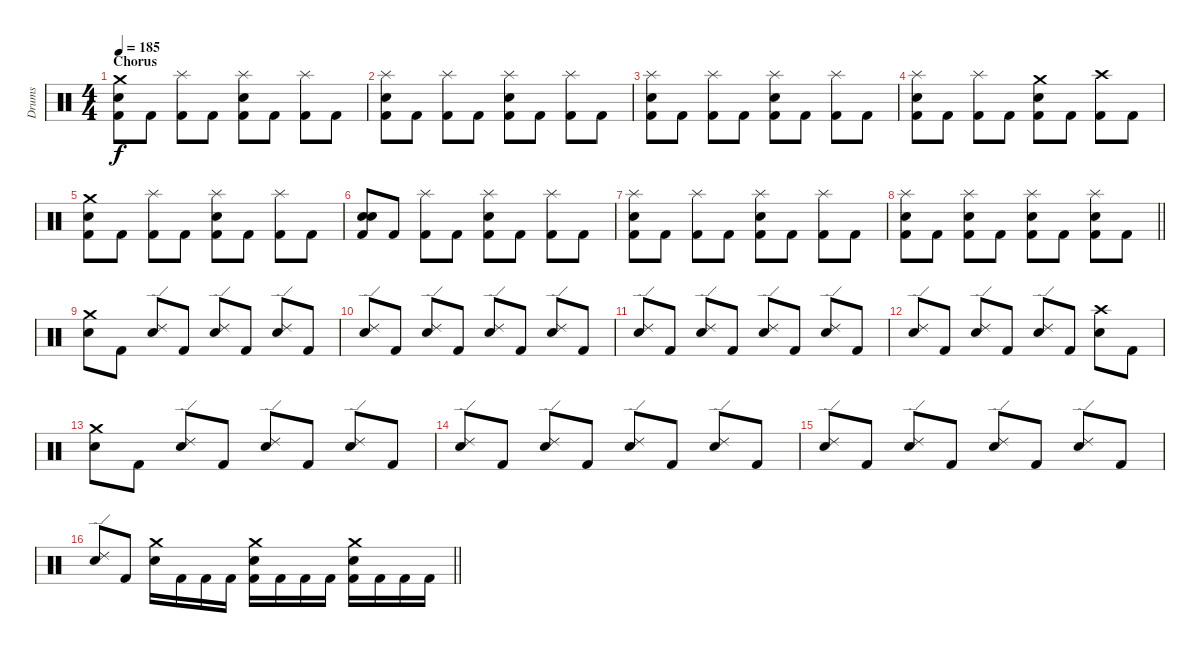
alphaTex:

\track ("Drums" "Drums") {instrument percussion}
\staff {score}
\articulation defaults
\ts (4 4)
\section ("" "Chorus")
\tempo 185
\clef neutral
\ks c
("Kick (hit) 2" "Snare (hit) 2" "Crash medium (hit)").8{dy f} "Kick (hit) 2".8 ("Kick (hit) 2" "Splash (hit)").8 "Kick (hit) 2".8 ("Kick (hit) 2" "Snare (hit) 2" "Splash (hit)").8 "Kick (hit) 2".8 ("Kick (hit) 2" "Splash (hit)").8 "Kick (hit) 2".8 |
("Kick (hit) 2" "Snare (hit) 2" "Splash (hit)").8 "Kick (hit) 2".8 ("Kick (hit) 2" "Splash (hit)").8 "Kick (hit) 2".8 ("Kick (hit) 2" "Snare (hit) 2" "Splash (hit)").8 "Kick (hit) 2".8 ("Kick (hit) 2" "Splash (hit)").8 "Kick (hit) 2".8 |
("Kick (hit) 2" "Snare (hit) 2" "Splash (hit)").8 "Kick (hit) 2".8 ("Kick (hit) 2" "Splash (hit)").8 "Kick (hit) 2".8 ("Kick (hit) 2" "Snare (hit) 2" "Splash (hit)").8 "Kick (hit) 2".8 ("Kick (hit) 2" "Splash (hit)").8 "Kick (hit) 2".8 |
("Kick (hit) 2" "Snare (hit) 2" "Splash (hit)").8 "Kick (hit) 2".8 ("Kick (hit) 2" "Splash (hit)").8 "Kick (hit) 2".8 ("Kick (hit) 2" "Snare (hit) 2" "Crash medium (hit)").8 "Kick (hit) 2".8 ("Kick (hit) 2" "Crash high (hit)").8 "Kick (hit) 2".8 |
("Kick (hit) 2" "Snare (hit) 2" "Crash medium (hit)").8 "Kick (hit) 2".8 ("Kick (hit) 2" "Splash (hit)").8 "Kick (hit) 2".8 ("Kick (hit) 2" "Snare (hit) 2" "Splash (hit)").8 "Kick (hit) 2".8 ("Kick (hit) 2" "Splash (hit)").8 "Kick (hit) 2".8 |
("Kick (hit) 2" "Snare (hit) 2" "Snare (hit) 2").8 "Kick (hit) 2".8 ("Kick (hit) 2" "Splash (hit)").8 "Kick (hit) 2".8 ("Kick (hit) 2" "Snare (hit) 2" "Splash (hit)").8 "Kick (hit) 2".8 ("Kick (hit) 2" "Splash (hit)").8 "Kick (hit) 2".8 |
("Kick (hit) 2" "Snare (hit) 2" "Splash (hit)").8 "Kick (hit) 2".8 ("Kick (hit) 2" "Splash (hit)").8 "Kick (hit) 2".8 ("Kick (hit) 2" "Snare (hit) 2" "Splash (hit)").8 "Kick (hit) 2".8 ("Kick (hit) 2" "Splash (hit)").8 "Kick (hit) 2".8 |
\barLineRight lightlight
("Kick (hit) 2" "Snare (hit) 2" "Splash (hit)").8 "Kick (hit) 2".8 ("Kick (hit) 2" "Snare (hit) 2" "Splash (hit)").8 "Kick (hit) 2".8 ("Kick (hit) 2" "Snare (hit) 2" "Splash (hit)").8 "Kick (hit) 2".8 ("Kick (hit) 2" "Snare (hit) 2" "Splash (hit)").8 "Kick (hit) 2".8 |
\section ("" "")
("Snare (hit) 2" "Crash medium (hit)").8 "Kick (hit) 2".8 ("Snare (hit) 2" "Ride (edge) 2").8 "Kick (hit) 2".8 ("Snare (hit) 2" "Ride (edge) 2").8 "Kick (hit) 2".8 ("Snare (hit) 2" "Ride (edge) 2").8 "Kick (hit) 2".8 |
("Snare (hit) 2" "Ride (edge) 2").8 "Kick (hit) 2".8 ("Snare (hit) 2" "Ride (edge) 2").8 "Kick (hit) 2".8 ("Snare (hit) 2" "Ride (edge) 2").8 "Kick (hit) 2".8 ("Snare (hit) 2" "Ride (edge) 2").8 "Kick (hit) 2".8 |
("Snare (hit) 2" "Ride (edge) 2").8 "Kick (hit) 2".8 ("Snare (hit) 2" "Ride (edge) 2").8 "Kick (hit) 2".8 ("Snare (hit) 2" "Ride (edge) 2").8 "Kick (hit) 2".8 ("Snare (hit) 2" "Ride (edge) 2").8 "Kick (hit) 2".8 |
("Snare (hit) 2" "Ride (edge) 2").8 "Kick (hit) 2".8 ("Snare (hit) 2" "Ride (edge) 2").8 "Kick (hit) 2".8 ("Snare (hit) 2" "Ride (edge) 2").8 "Kick (hit) 2".8 ("Snare (hit) 2" "Crash high (hit)").8 "Kick (hit) 2".8 |
("Snare (hit) 2" "Crash medium (hit)").8 "Kick (hit) 2".8 ("Snare (hit) 2" "Ride (edge) 2").8 "Kick (hit) 2".8 ("Snare (hit) 2" "Ride (edge) 2").8 "Kick (hit) 2".8 ("Snare (hit) 2" "Ride (edge) 2").8 "Kick (hit) 2".8 |
("Snare (hit) 2" "Ride (edge) 2").8 "Kick (hit) 2".8 ("Snare (hit) 2" "Ride (edge) 2").8 "Kick (hit) 2".8 ("Snare (hit) 2" "Ride (edge) 2").8 "Kick (hit) 2".8 ("Snare (hit) 2" "Ride (edge) 2").8 "Kick (hit) 2".8 |
("Snare (hit) 2" "Ride (edge) 2").8 "Kick (hit) 2".8 ("Snare (hit) 2" "Ride (edge) 2").8 "Kick (hit) 2".8 ("Snare (hit) 2" "Ride (edge) 2").8 "Kick (hit) 2".8 ("Snare (hit) 2" "Ride (edge) 2").8 "Kick (hit) 2".8 |
\barLineRight lightlight
("Snare (hit) 2" "Ride (edge) 2").8 "Kick (hit) 2".8 ("Snare (hit) 2" "Crash medium (hit)").16 "Kick (hit) 2".16 "Kick (hit) 2".16 "Kick (hit) 2".16 ("Kick (hit) 2" "Snare (hit) 2" "Crash medium (hit)").16 "Kick (hit) 2".16 "Kick (hit) 2".16 "Kick (hit) 2".16 ("Kick (hit) 2" "Snare (hit) 2" "Crash medium (hit)").16 "Kick (hit) 2".16 "Kick (hit) 2".16 "Kick (hit) 2".16
